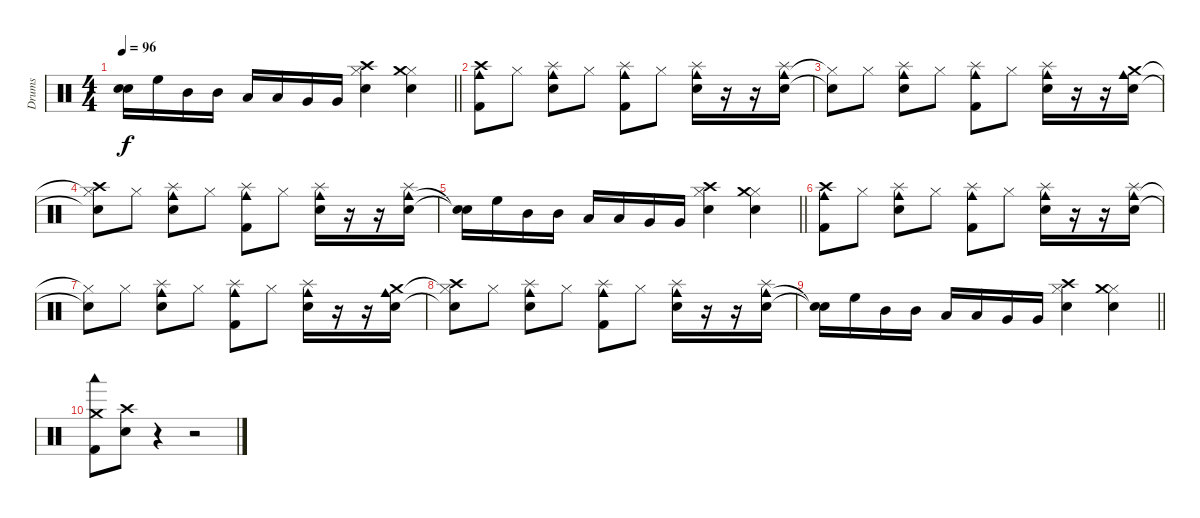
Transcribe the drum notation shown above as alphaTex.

\track ("Drums" "Drums") {instrument percussion}
\staff {score}
\articulation defaults
\ts (4 4)
\tempo 96
\clef neutral
\barLineRight lightlight
\ks c
("Snare (hit)"{t} "Snare (hit)"{t}).16{dy f} "High Floor Tom (hit)".16 "Mid Tom (hit)".16 "Mid Tom (hit)".16 "Low Tom (hit)".16 "Low Tom (hit)".16 "Very Low Tom (hit)".16 "Very Low Tom (hit)".16 ("Snare (hit) 2" "Hi-Hat (closed)" "Crash high (hit)").4 ("Snare (hit) 2" "Hi-Hat (closed)" "Crash medium (hit)").4 |
("Kick (hit) 2" "Cowbell medium (hit)" "Crash high (hit)").8 "Hi-Hat (closed)".8 ("Snare (hit) 2" "Cowbell medium (hit)" "Splash (hit)").8 "Hi-Hat (closed)".8 ("Kick (hit) 2" "Cowbell medium (hit)" "Splash (hit)").8 "Hi-Hat (closed)".8 ("Snare (hit) 2" "Cowbell medium (hit)" "Splash (hit)").16 r.16 r.16 ("Snare (hit) 2" "Cowbell medium (hit)" "Splash (hit)").16 |
("Snare (hit) 2"{t} "Hi-Hat (closed)"{t}).8 "Hi-Hat (closed)".8 ("Snare (hit) 2" "Cowbell medium (hit)" "Splash (hit)").8 "Hi-Hat (closed)".8 ("Kick (hit) 2" "Cowbell medium (hit)" "Splash (hit)").8 "Hi-Hat (closed)".8 ("Snare (hit) 2" "Cowbell medium (hit)" "Splash (hit)").16 r.16 r.16 ("Snare (hit) 2" "Cowbell medium (hit)" "Crash medium (hit)").16 |
("Snare (hit) 2"{t} "Hi-Hat (closed)"{t} "Crash high (hit)").8 "Hi-Hat (closed)".8 ("Snare (hit) 2" "Cowbell medium (hit)" "Splash (hit)").8 "Hi-Hat (closed)".8 ("Kick (hit) 2" "Cowbell medium (hit)" "Splash (hit)").8 "Hi-Hat (closed)".8 ("Snare (hit) 2" "Cowbell medium (hit)" "Splash (hit)").16 r.16 r.16 ("Snare (hit) 2" "Cowbell medium (hit)" "Splash (hit)").16 |
\barLineRight lightlight
("Snare (hit)"{t} "Snare (hit)"{t}).16 "High Floor Tom (hit)".16 "Mid Tom (hit)".16 "Mid Tom (hit)".16 "Low Tom (hit)".16 "Low Tom (hit)".16 "Very Low Tom (hit)".16 "Very Low Tom (hit)".16 ("Snare (hit) 2" "Hi-Hat (closed)" "Crash high (hit)").4 ("Snare (hit) 2" "Hi-Hat (closed)" "Crash medium (hit)").4 |
("Kick (hit) 2" "Cowbell medium (hit)" "Crash high (hit)").8 "Hi-Hat (closed)".8 ("Snare (hit) 2" "Cowbell medium (hit)" "Splash (hit)").8 "Hi-Hat (closed)".8 ("Kick (hit) 2" "Cowbell medium (hit)" "Splash (hit)").8 "Hi-Hat (closed)".8 ("Snare (hit) 2" "Cowbell medium (hit)" "Splash (hit)").16 r.16 r.16 ("Snare (hit) 2" "Cowbell medium (hit)" "Splash (hit)").16 |
("Snare (hit) 2"{t} "Hi-Hat (closed)"{t}).8 "Hi-Hat (closed)".8 ("Snare (hit) 2" "Cowbell medium (hit)" "Splash (hit)").8 "Hi-Hat (closed)".8 ("Kick (hit) 2" "Cowbell medium (hit)" "Splash (hit)").8 "Hi-Hat (closed)".8 ("Snare (hit) 2" "Cowbell medium (hit)" "Splash (hit)").16 r.16 r.16 ("Snare (hit) 2" "Cowbell medium (hit)" "Crash medium (hit)").16 |
("Snare (hit) 2"{t} "Hi-Hat (closed)"{t} "Crash high (hit)").8 "Hi-Hat (closed)".8 ("Snare (hit) 2" "Cowbell medium (hit)" "Splash (hit)").8 "Hi-Hat (closed)".8 ("Kick (hit) 2" "Cowbell medium (hit)" "Splash (hit)").8 "Hi-Hat (closed)".8 ("Snare (hit) 2" "Cowbell medium (hit)" "Splash (hit)").16 r.16 r.16 ("Snare (hit) 2" "Cowbell medium (hit)" "Splash (hit)").16 |
\barLineRight lightlight
("Snare (hit)"{t} "Snare (hit)"{t}).16 "High Floor Tom (hit)".16 "Mid Tom (hit)".16 "Mid Tom (hit)".16 "Low Tom (hit)".16 "Low Tom (hit)".16 "Very Low Tom (hit)".16 "Very Low Tom (hit)".16 ("Snare (hit) 2" "Hi-Hat (closed)" "Crash high (hit)").4 ("Snare (hit) 2" "Hi-Hat (closed)" "Crash medium (hit)").4 |
("Kick (hit) 2" "Crash medium (hit)" "Woodblock low (hit)").8 ("Snare (hit) 2" "Crash high (hit)").8 r.4 r.2
